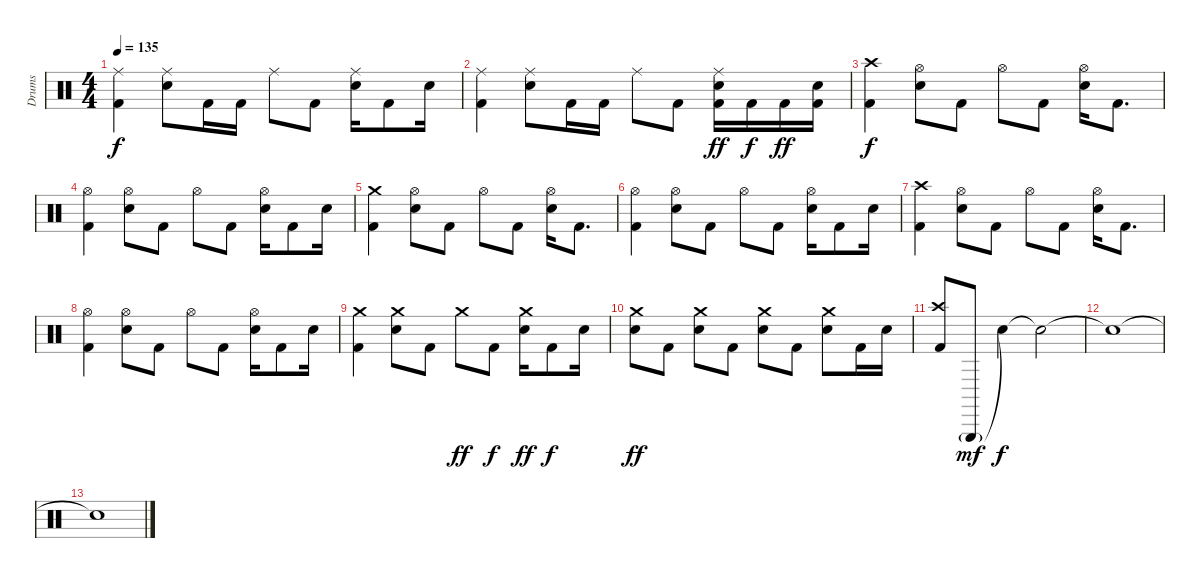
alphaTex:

\track ("Drums" "Drums") {instrument percussion}
\staff {score}
\articulation defaults
\ts (4 4)
\tempo 135
\clef neutral
\ks c
("Ride (middle)" "Kick (hit) 2").4{dy f} ("Ride (middle)" "Electric Snare (hit)").8 "Kick (hit) 2".16 "Kick (hit) 2".16 "Ride (middle)".8 "Kick (hit) 2".8 ("Ride (middle)" "Electric Snare (hit)").16 "Kick (hit) 2".8 "Electric Snare (hit)".16 |
("Ride (middle)" "Kick (hit) 2").4 ("Ride (middle)" "Electric Snare (hit)").8 "Kick (hit) 2".16 "Kick (hit) 2".16 "Ride (middle)".8 "Kick (hit) 2".8 ("Ride (middle)" "Electric Snare (hit)" "Kick (hit) 2").16{dy ff} "Kick (hit) 2".16{dy f} "Kick (hit) 2".16{dy ff} ("Electric Snare (hit)" "Kick (hit) 2").16 |
("Crash high (hit)" "Kick (hit) 2").4{dy f} ("Hi-Hat (open)" "Electric Snare (hit)").8 "Kick (hit) 2".8 "Hi-Hat (open)".8 "Kick (hit) 2".8 ("Hi-Hat (open)" "Electric Snare (hit)").16 "Kick (hit) 2".8{d} |
("Hi-Hat (open)" "Kick (hit) 2").4 ("Hi-Hat (open)" "Electric Snare (hit)").8 "Kick (hit) 2".8 "Hi-Hat (open)".8 "Kick (hit) 2".8 ("Hi-Hat (open)" "Electric Snare (hit)").16 "Kick (hit) 2".8 "Electric Snare (hit)".16 |
("Crash medium (hit)" "Kick (hit) 2").4 ("Hi-Hat (open)" "Electric Snare (hit)").8 "Kick (hit) 2".8 "Hi-Hat (open)".8 "Kick (hit) 2".8 ("Hi-Hat (open)" "Electric Snare (hit)").16 "Kick (hit) 2".8{d} |
("Hi-Hat (open)" "Kick (hit) 2").4 ("Hi-Hat (open)" "Electric Snare (hit)").8 "Kick (hit) 2".8 "Hi-Hat (open)".8 "Kick (hit) 2".8 ("Hi-Hat (open)" "Electric Snare (hit)").16 "Kick (hit) 2".8 "Electric Snare (hit)".16 |
("Crash high (hit)" "Kick (hit) 2").4 ("Hi-Hat (open)" "Electric Snare (hit)").8 "Kick (hit) 2".8 "Hi-Hat (open)".8 "Kick (hit) 2".8 ("Hi-Hat (open)" "Electric Snare (hit)").16 "Kick (hit) 2".8{d} |
("Hi-Hat (open)" "Kick (hit) 2").4 ("Hi-Hat (open)" "Electric Snare (hit)").8 "Kick (hit) 2".8 "Hi-Hat (open)".8 "Kick (hit) 2".8 ("Hi-Hat (open)" "Electric Snare (hit)").16 "Kick (hit) 2".8 "Electric Snare (hit)".16 |
("Crash medium (hit)" "Kick (hit) 2").4 ("Crash medium (hit)" "Electric Snare (hit)").8 "Kick (hit) 2".8 "Crash medium (hit)".8{dy ff} "Kick (hit) 2".8{dy f} ("Crash medium (hit)" "Electric Snare (hit)").16{dy ff} "Kick (hit) 2".8{dy f} "Electric Snare (hit)".16 |
("Crash medium (hit)" "Electric Snare (hit)").8{dy ff} "Kick (hit) 2".8 ("Crash medium (hit)" "Electric Snare (hit)").8 "Kick (hit) 2".8 ("Crash medium (hit)" "Electric Snare (hit)").8 "Kick (hit) 2".8 ("Crash medium (hit)" "Electric Snare (hit)").8 "Kick (hit) 2".16 "Electric Snare (hit)".16 |
("Crash high (hit)" "Kick (hit) 2").8 "Triangle (hit)"{g}.8{dy mf} "Snare (hit)"{t}.4{dy f} "Snare (hit)"{t}.2{volume 0} |
"Snare (hit)"{t}.1 |
"Snare (hit)"{t}.1
